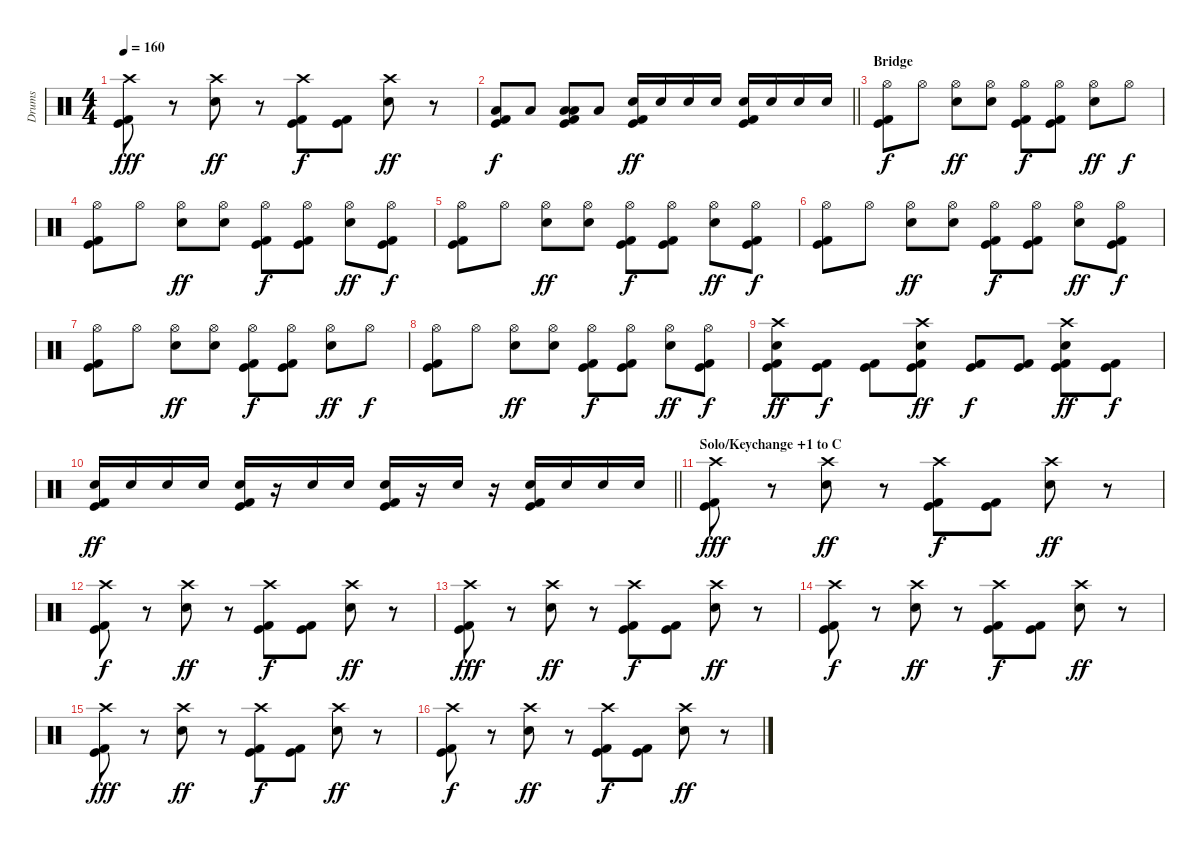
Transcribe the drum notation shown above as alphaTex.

\track ("Drums" "Drums") {instrument percussion}
\staff {score}
\articulation defaults
\ts (4 4)
\tempo 160
\clef neutral
\ks c
("Crash high (hit)" "Kick (hit)" "Kick (hit) 2").8{dy fff} r.8 ("Crash high (hit)" "Snare (hit) 2").8{dy ff} r.8 ("Crash high (hit)" "Kick (hit)" "Kick (hit) 2").8{dy f} ("Kick (hit)" "Kick (hit) 2").8 ("Crash high (hit)" "Snare (hit) 2").8{dy ff} r.8 |
\barLineRight lightlight
("Low Floor Tom (hit)" "Kick (hit)" "Kick (hit) 2").8{dy f} "Low Floor Tom (hit)".8 ("Low Tom (hit)" "Low Floor Tom (hit)" "Kick (hit)" "Kick (hit) 2").8 "Low Floor Tom (hit)".8 ("Snare (hit) 2" "Kick (hit)" "Kick (hit) 2").16{dy ff} "Snare (hit) 2".16 "Snare (hit) 2".16 "Snare (hit) 2".16 ("Snare (hit) 2" "Kick (hit)" "Kick (hit) 2").16 "Snare (hit) 2".16 "Snare (hit) 2".16 "Snare (hit) 2".16 |
\section ("" "Bridge")
("Hi-Hat (open)" "Kick (hit)" "Kick (hit) 2").8{dy f} "Hi-Hat (open)".8 ("Hi-Hat (open)" "Snare (hit) 2").8{dy ff} ("Hi-Hat (open)" "Snare (hit) 2").8 ("Hi-Hat (open)" "Kick (hit)" "Kick (hit) 2").8{dy f} ("Hi-Hat (open)" "Kick (hit)" "Kick (hit) 2").8 ("Hi-Hat (open)" "Snare (hit) 2").8{dy ff} "Hi-Hat (open)".8{dy f} |
("Hi-Hat (open)" "Kick (hit)" "Kick (hit) 2").8 "Hi-Hat (open)".8 ("Hi-Hat (open)" "Snare (hit) 2").8{dy ff} ("Hi-Hat (open)" "Snare (hit) 2").8 ("Hi-Hat (open)" "Kick (hit)" "Kick (hit) 2").8{dy f} ("Hi-Hat (open)" "Kick (hit)" "Kick (hit) 2").8 ("Hi-Hat (open)" "Snare (hit) 2").8{dy ff} ("Hi-Hat (open)" "Kick (hit)" "Kick (hit) 2").8{dy f} |
("Hi-Hat (open)" "Kick (hit)" "Kick (hit) 2").8 "Hi-Hat (open)".8 ("Hi-Hat (open)" "Snare (hit) 2").8{dy ff} ("Hi-Hat (open)" "Snare (hit) 2").8 ("Hi-Hat (open)" "Kick (hit)" "Kick (hit) 2").8{dy f} ("Hi-Hat (open)" "Kick (hit)" "Kick (hit) 2").8 ("Hi-Hat (open)" "Snare (hit) 2").8{dy ff} ("Hi-Hat (open)" "Kick (hit)" "Kick (hit) 2").8{dy f} |
("Hi-Hat (open)" "Kick (hit)" "Kick (hit) 2").8 "Hi-Hat (open)".8 ("Hi-Hat (open)" "Snare (hit) 2").8{dy ff} ("Hi-Hat (open)" "Snare (hit) 2").8 ("Hi-Hat (open)" "Kick (hit)" "Kick (hit) 2").8{dy f} ("Hi-Hat (open)" "Kick (hit)" "Kick (hit) 2").8 ("Hi-Hat (open)" "Snare (hit) 2").8{dy ff} ("Hi-Hat (open)" "Kick (hit)" "Kick (hit) 2").8{dy f} |
("Hi-Hat (open)" "Kick (hit)" "Kick (hit) 2").8 "Hi-Hat (open)".8 ("Hi-Hat (open)" "Snare (hit) 2").8{dy ff} ("Hi-Hat (open)" "Snare (hit) 2").8 ("Hi-Hat (open)" "Kick (hit)" "Kick (hit) 2").8{dy f} ("Hi-Hat (open)" "Kick (hit)" "Kick (hit) 2").8 ("Hi-Hat (open)" "Snare (hit) 2").8{dy ff} "Hi-Hat (open)".8{dy f} |
("Hi-Hat (open)" "Kick (hit)" "Kick (hit) 2").8 "Hi-Hat (open)".8 ("Hi-Hat (open)" "Snare (hit) 2").8{dy ff} ("Hi-Hat (open)" "Snare (hit) 2").8 ("Hi-Hat (open)" "Kick (hit)" "Kick (hit) 2").8{dy f} ("Hi-Hat (open)" "Kick (hit)" "Kick (hit) 2").8 ("Hi-Hat (open)" "Snare (hit) 2").8{dy ff} ("Hi-Hat (open)" "Kick (hit)" "Kick (hit) 2").8{dy f} |
("Crash high (hit)" "Snare (hit) 2" "Kick (hit)" "Kick (hit) 2").8{dy ff} ("Kick (hit)" "Kick (hit) 2").8{dy f} ("Kick (hit)" "Kick (hit) 2").8 ("Crash high (hit)" "Snare (hit) 2" "Kick (hit)" "Kick (hit) 2").8{dy ff} ("Kick (hit)" "Kick (hit) 2").8{dy f} ("Kick (hit)" "Kick (hit) 2").8 ("Crash high (hit)" "Snare (hit) 2" "Kick (hit)" "Kick (hit) 2").8{dy ff} ("Kick (hit)" "Kick (hit) 2").8{dy f} |
\barLineRight lightlight
("Snare (hit) 2" "Kick (hit)" "Kick (hit) 2").16{dy ff} "Snare (hit) 2".16 "Snare (hit) 2".16 "Snare (hit) 2".16 ("Snare (hit) 2" "Kick (hit)" "Kick (hit) 2").16 r.16 "Snare (hit) 2".16 "Snare (hit) 2".16 ("Snare (hit) 2" "Kick (hit)" "Kick (hit) 2").16 r.16 "Snare (hit) 2".16 r.16 ("Snare (hit) 2" "Kick (hit)" "Kick (hit) 2").16 "Snare (hit) 2".16 "Snare (hit) 2".16 "Snare (hit) 2".16 |
\section ("" "Solo/Keychange +1 to C")
("Crash high (hit)" "Kick (hit)" "Kick (hit) 2").8{dy fff} r.8 ("Crash high (hit)" "Snare (hit) 2").8{dy ff} r.8 ("Crash high (hit)" "Kick (hit)" "Kick (hit) 2").8{dy f} ("Kick (hit)" "Kick (hit) 2").8 ("Crash high (hit)" "Snare (hit) 2").8{dy ff} r.8 |
("Crash high (hit)" "Kick (hit)" "Kick (hit) 2").8{dy f} r.8 ("Crash high (hit)" "Snare (hit) 2").8{dy ff} r.8 ("Crash high (hit)" "Kick (hit)" "Kick (hit) 2").8{dy f} ("Kick (hit)" "Kick (hit) 2").8 ("Crash high (hit)" "Snare (hit) 2").8{dy ff} r.8 |
("Crash high (hit)" "Kick (hit)" "Kick (hit) 2").8{dy fff} r.8 ("Crash high (hit)" "Snare (hit) 2").8{dy ff} r.8 ("Crash high (hit)" "Kick (hit)" "Kick (hit) 2").8{dy f} ("Kick (hit)" "Kick (hit) 2").8 ("Crash high (hit)" "Snare (hit) 2").8{dy ff} r.8 |
("Crash high (hit)" "Kick (hit)" "Kick (hit) 2").8{dy f} r.8 ("Crash high (hit)" "Snare (hit) 2").8{dy ff} r.8 ("Crash high (hit)" "Kick (hit)" "Kick (hit) 2").8{dy f} ("Kick (hit)" "Kick (hit) 2").8 ("Crash high (hit)" "Snare (hit) 2").8{dy ff} r.8 |
("Crash high (hit)" "Kick (hit)" "Kick (hit) 2").8{dy fff} r.8 ("Crash high (hit)" "Snare (hit) 2").8{dy ff} r.8 ("Crash high (hit)" "Kick (hit)" "Kick (hit) 2").8{dy f} ("Kick (hit)" "Kick (hit) 2").8 ("Crash high (hit)" "Snare (hit) 2").8{dy ff} r.8 |
("Crash high (hit)" "Kick (hit)" "Kick (hit) 2").8{dy f} r.8 ("Crash high (hit)" "Snare (hit) 2").8{dy ff} r.8 ("Crash high (hit)" "Kick (hit)" "Kick (hit) 2").8{dy f} ("Kick (hit)" "Kick (hit) 2").8 ("Crash high (hit)" "Snare (hit) 2").8{dy ff} r.8
